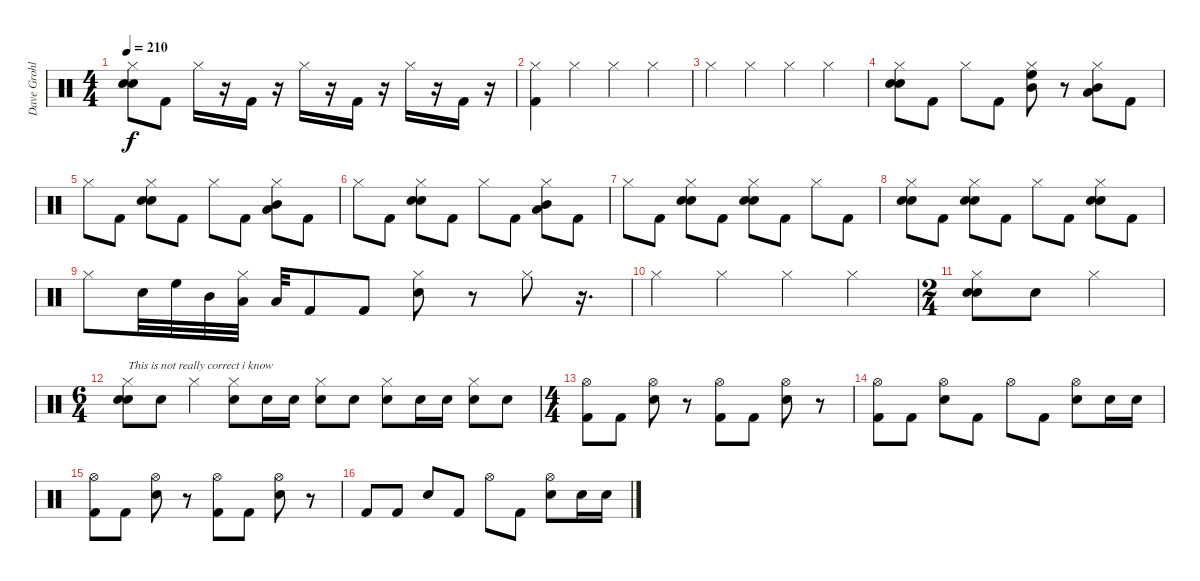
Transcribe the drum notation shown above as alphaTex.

\track ("Dave Grohl" "Dave Grohl") {instrument percussion}
\staff {score}
\articulation defaults
\ts (4 4)
\tempo 210
\clef neutral
\ks c
("Hi-Hat (closed)" "Snare (hit) 2" "Snare (hit) 2").8{bd 480 dy f} "Kick (hit) 2".8 "Hi-Hat (closed)".16 r.16 "Kick (hit) 2".16 r.16 "Hi-Hat (closed)".16 r.16 "Kick (hit) 2".16 r.16 "Hi-Hat (closed)".16 r.16 "Kick (hit) 2".16 r.16 |
("Kick (hit) 2" "Hi-Hat (closed)").4 "Hi-Hat (closed)".4 "Hi-Hat (closed)".4 "Hi-Hat (closed)".4 |
"Hi-Hat (closed)".4 "Hi-Hat (closed)".4 "Hi-Hat (closed)".4 "Hi-Hat (closed)".4 |
("Hi-Hat (closed)" "Snare (hit) 2" "Snare (hit) 2").8{bd 480} "Kick (hit) 2".8 "Hi-Hat (closed)".8 "Kick (hit) 2".8 ("Hi-Hat (closed)" "High Floor Tom (hit)" "Mid Tom (hit)").8{bd 480} r.8 ("Hi-Hat (closed)" "Mid Tom (hit)" "Low Tom (hit)").8{bd 480} "Kick (hit) 2".8 |
"Hi-Hat (closed)".8 "Kick (hit) 2".8 ("Hi-Hat (closed)" "Snare (hit) 2" "Snare (hit) 2").8{bd 480} "Kick (hit) 2".8 "Hi-Hat (closed)".8 "Kick (hit) 2".8 ("Hi-Hat (closed)" "Low Tom (hit)" "Mid Tom (hit)").8{bd 480} "Kick (hit) 2".8 |
"Hi-Hat (closed)".8 "Kick (hit) 2".8 ("Hi-Hat (closed)" "Snare (hit) 2" "Snare (hit) 2").8{bd 480} "Kick (hit) 2".8 "Hi-Hat (closed)".8 "Kick (hit) 2".8 ("Hi-Hat (closed)" "Low Tom (hit)" "Mid Tom (hit)").8{bd 480} "Kick (hit) 2".8 |
"Hi-Hat (closed)".8 "Kick (hit) 2".8 ("Hi-Hat (closed)" "Snare (hit) 2" "Snare (hit) 2").8{bd 480} "Kick (hit) 2".8 ("Hi-Hat (closed)" "Snare (hit) 2" "Snare (hit) 2").8{bd 480} "Kick (hit) 2".8 "Hi-Hat (closed)".8 "Kick (hit) 2".8 |
("Hi-Hat (closed)" "Snare (hit) 2" "Snare (hit) 2").8{bd 480} "Kick (hit) 2".8 ("Hi-Hat (closed)" "Snare (hit) 2" "Snare (hit) 2").8{bd 480} "Kick (hit) 2".8 "Hi-Hat (closed)".8 "Kick (hit) 2".8 ("Hi-Hat (closed)" "Snare (hit) 2" "Snare (hit) 2").8{bd 480} "Kick (hit) 2".8 |
"Hi-Hat (closed)".8 "Snare (hit) 2".32 "High Floor Tom (hit)".32 "Mid Tom (hit)".32 ("Hi-Hat (closed)" "Low Tom (hit)").32 "Low Floor Tom (hit)".32 "Kick (hit) 2".8 "Kick (hit) 2".8 ("Hi-Hat (closed)" "Snare (hit) 2").8 r.8 "Hi-Hat (closed)".8 r.16{d} |
"Hi-Hat (closed)".4 "Hi-Hat (closed)".4 "Hi-Hat (closed)".4 "Hi-Hat (closed)".4 |
\ts (2 4)
("Hi-Hat (closed)" "Snare (hit) 2" "Snare (hit) 2").8{bu 480} "Snare (hit) 2".8 "Hi-Hat (closed)".4 |
\ts (6 4)
("Hi-Hat (closed)" "Snare (hit) 2" "Snare (hit) 2").8{bd 480 txt "This is not really correct i know"} "Snare (hit) 2".8 "Hi-Hat (closed)".4 ("Hi-Hat (closed)" "Snare (hit) 2").8 "Snare (hit) 2".16 "Snare (hit) 2".16 ("Hi-Hat (closed)" "Snare (hit) 2").8 "Snare (hit) 2".8 ("Hi-Hat (closed)" "Snare (hit) 2").8 "Snare (hit) 2".16 "Snare (hit) 2".16 ("Hi-Hat (closed)" "Snare (hit) 2").8 "Snare (hit) 2".8 |
\ts (4 4)
("Hi-Hat (open)" "Kick (hit) 2").8 "Kick (hit) 2".8 ("Hi-Hat (open)" "Snare (hit) 2").8 r.8 ("Hi-Hat (open)" "Kick (hit) 2").8 "Kick (hit) 2".8 ("Hi-Hat (open)" "Snare (hit) 2").8 r.8 |
("Hi-Hat (open)" "Kick (hit) 2").8 "Kick (hit) 2".8 ("Hi-Hat (open)" "Snare (hit) 2").8 "Kick (hit) 2".8 "Hi-Hat (open)".8 "Kick (hit) 2".8 ("Hi-Hat (open)" "Snare (hit) 2").8 "Snare (hit) 2".16 "Snare (hit) 2".16 |
("Hi-Hat (open)" "Kick (hit) 2").8 "Kick (hit) 2".8 ("Hi-Hat (open)" "Snare (hit) 2").8 r.8 ("Hi-Hat (open)" "Kick (hit) 2").8 "Kick (hit) 2".8 ("Hi-Hat (open)" "Snare (hit) 2").8 r.8 |
"Kick (hit) 2".8 "Kick (hit) 2".8 "Snare (hit) 2".8 "Kick (hit) 2".8 "Hi-Hat (open)".8 "Kick (hit) 2".8 ("Hi-Hat (open)" "Snare (hit) 2").8 "Snare (hit) 2".16 "Snare (hit) 2".16
